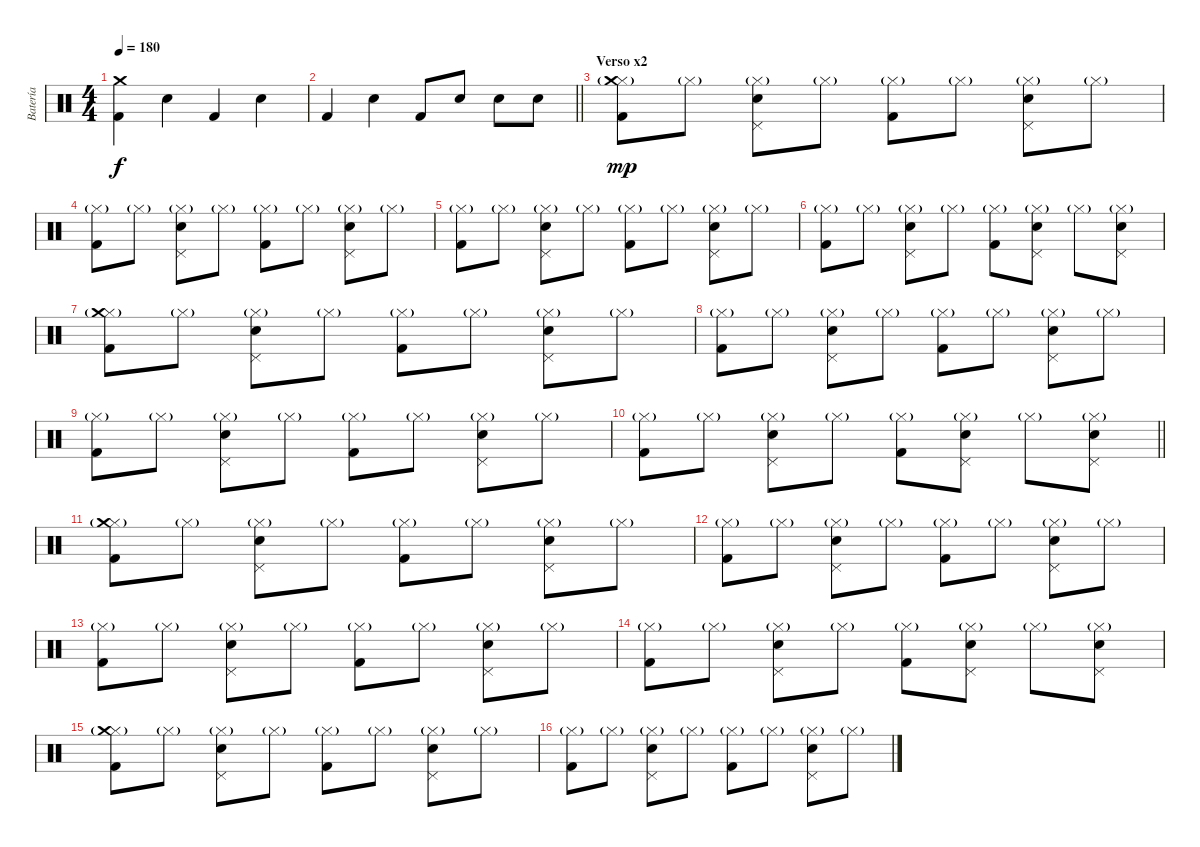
\track ("Batería" "Batería") {instrument percussion}
\staff {score}
\articulation defaults
\ts (4 4)
\tempo 180
\clef neutral
\ks c
("Kick (hit) 2" "Crash medium (hit)").4{dy f} "Electric Snare (hit)".4 "Kick (hit) 2".4 "Electric Snare (hit)".4 |
\barLineRight lightlight "Kick (hit) 2".4 "Electric Snare (hit)".4 "Kick (hit) 2".8 "Electric Snare (hit)".8 "Electric Snare (hit)".8 "Electric Snare (hit)".8
|
\section ("" "Verso x2")
("Hi-Hat (closed)"{g} "Kick (hit) 2" "Crash medium (hit)").8{dy mp} "Hi-Hat (closed)"{g}.8 ("Hi-Hat (closed)"{g} "Electric Snare (hit)" "Pedal Hi-Hat (hit)").8 "Hi-Hat (closed)"{g}.8 ("Hi-Hat (closed)"{g} "Kick (hit) 2").8 "Hi-Hat (closed)"{g}.8 ("Hi-Hat (closed)"{g} "Electric Snare (hit)" "Pedal Hi-Hat (hit)").8 "Hi-Hat (closed)"{g}.8 |
("Hi-Hat (closed)"{g} "Kick (hit) 2").8 "Hi-Hat (closed)"{g}.8 ("Hi-Hat (closed)"{g} "Electric Snare (hit)" "Pedal Hi-Hat (hit)").8 "Hi-Hat (closed)"{g}.8 ("Hi-Hat (closed)"{g} "Kick (hit) 2").8 "Hi-Hat (closed)"{g}.8 ("Hi-Hat (closed)"{g} "Electric Snare (hit)" "Pedal Hi-Hat (hit)").8 "Hi-Hat (closed)"{g}.8 |
("Hi-Hat (closed)"{g} "Kick (hit) 2").8 "Hi-Hat (closed)"{g}.8 ("Hi-Hat (closed)"{g} "Electric Snare (hit)" "Pedal Hi-Hat (hit)").8 "Hi-Hat (closed)"{g}.8 ("Hi-Hat (closed)"{g} "Kick (hit) 2").8 "Hi-Hat (closed)"{g}.8 ("Hi-Hat (closed)"{g} "Electric Snare (hit)" "Pedal Hi-Hat (hit)").8 "Hi-Hat (closed)"{g}.8 |
("Hi-Hat (closed)"{g} "Kick (hit) 2").8 "Hi-Hat (closed)"{g}.8 ("Hi-Hat (closed)"{g} "Electric Snare (hit)" "Pedal Hi-Hat (hit)").8 "Hi-Hat (closed)"{g}.8 ("Hi-Hat (closed)"{g} "Kick (hit) 2").8 ("Hi-Hat (closed)"{g} "Electric Snare (hit)" "Pedal Hi-Hat (hit)").8 "Hi-Hat (closed)"{g}.8 ("Hi-Hat (closed)"{g} "Electric Snare (hit)" "Pedal Hi-Hat (hit)").8 |
("Hi-Hat (closed)"{g} "Kick (hit) 2" "Crash medium (hit)").8 "Hi-Hat (closed)"{g}.8 ("Hi-Hat (closed)"{g} "Electric Snare (hit)" "Pedal Hi-Hat (hit)").8 "Hi-Hat (closed)"{g}.8 ("Hi-Hat (closed)"{g} "Kick (hit) 2").8 "Hi-Hat (closed)"{g}.8 ("Hi-Hat (closed)"{g} "Electric Snare (hit)" "Pedal Hi-Hat (hit)").8 "Hi-Hat (closed)"{g}.8 |
("Hi-Hat (closed)"{g} "Kick (hit) 2").8 "Hi-Hat (closed)"{g}.8 ("Hi-Hat (closed)"{g} "Electric Snare (hit)" "Pedal Hi-Hat (hit)").8 "Hi-Hat (closed)"{g}.8 ("Hi-Hat (closed)"{g} "Kick (hit) 2").8 "Hi-Hat (closed)"{g}.8 ("Hi-Hat (closed)"{g} "Electric Snare (hit)" "Pedal Hi-Hat (hit)").8 "Hi-Hat (closed)"{g}.8 |
("Hi-Hat (closed)"{g} "Kick (hit) 2").8 "Hi-Hat (closed)"{g}.8 ("Hi-Hat (closed)"{g} "Electric Snare (hit)" "Pedal Hi-Hat (hit)").8 "Hi-Hat (closed)"{g}.8 ("Hi-Hat (closed)"{g} "Kick (hit) 2").8 "Hi-Hat (closed)"{g}.8 ("Hi-Hat (closed)"{g} "Electric Snare (hit)" "Pedal Hi-Hat (hit)").8 "Hi-Hat (closed)"{g}.8 |
\barLineRight lightlight
("Hi-Hat (closed)"{g} "Kick (hit) 2").8 "Hi-Hat (closed)"{g}.8 ("Hi-Hat (closed)"{g} "Electric Snare (hit)" "Pedal Hi-Hat (hit)").8 "Hi-Hat (closed)"{g}.8 ("Hi-Hat (closed)"{g} "Kick (hit) 2").8 ("Hi-Hat (closed)"{g} "Electric Snare (hit)" "Pedal Hi-Hat (hit)").8 "Hi-Hat (closed)"{g}.8 ("Hi-Hat (closed)"{g} "Electric Snare (hit)" "Pedal Hi-Hat (hit)").8 |
\section ("" "")
("Hi-Hat (closed)"{g} "Kick (hit) 2" "Crash medium (hit)").8 "Hi-Hat (closed)"{g}.8 ("Hi-Hat (closed)"{g} "Electric Snare (hit)" "Pedal Hi-Hat (hit)").8 "Hi-Hat (closed)"{g}.8 ("Hi-Hat (closed)"{g} "Kick (hit) 2").8 "Hi-Hat (closed)"{g}.8 ("Hi-Hat (closed)"{g} "Electric Snare (hit)" "Pedal Hi-Hat (hit)").8 "Hi-Hat (closed)"{g}.8 |
("Hi-Hat (closed)"{g} "Kick (hit) 2").8 "Hi-Hat (closed)"{g}.8 ("Hi-Hat (closed)"{g} "Electric Snare (hit)" "Pedal Hi-Hat (hit)").8 "Hi-Hat (closed)"{g}.8 ("Hi-Hat (closed)"{g} "Kick (hit) 2").8 "Hi-Hat (closed)"{g}.8 ("Hi-Hat (closed)"{g} "Electric Snare (hit)" "Pedal Hi-Hat (hit)").8 "Hi-Hat (closed)"{g}.8 |
("Hi-Hat (closed)"{g} "Kick (hit) 2").8 "Hi-Hat (closed)"{g}.8 ("Hi-Hat (closed)"{g} "Electric Snare (hit)" "Pedal Hi-Hat (hit)").8 "Hi-Hat (closed)"{g}.8 ("Hi-Hat (closed)"{g} "Kick (hit) 2").8 "Hi-Hat (closed)"{g}.8 ("Hi-Hat (closed)"{g} "Electric Snare (hit)" "Pedal Hi-Hat (hit)").8 "Hi-Hat (closed)"{g}.8 |
("Hi-Hat (closed)"{g} "Kick (hit) 2").8 "Hi-Hat (closed)"{g}.8 ("Hi-Hat (closed)"{g} "Electric Snare (hit)" "Pedal Hi-Hat (hit)").8 "Hi-Hat (closed)"{g}.8 ("Hi-Hat (closed)"{g} "Kick (hit) 2").8 ("Hi-Hat (closed)"{g} "Electric Snare (hit)" "Pedal Hi-Hat (hit)").8 "Hi-Hat (closed)"{g}.8 ("Hi-Hat (closed)"{g} "Electric Snare (hit)" "Pedal Hi-Hat (hit)").8 |
("Hi-Hat (closed)"{g} "Kick (hit) 2" "Crash medium (hit)").8 "Hi-Hat (closed)"{g}.8 ("Hi-Hat (closed)"{g} "Electric Snare (hit)" "Pedal Hi-Hat (hit)").8 "Hi-Hat (closed)"{g}.8 ("Hi-Hat (closed)"{g} "Kick (hit) 2").8 "Hi-Hat (closed)"{g}.8 ("Hi-Hat (closed)"{g} "Electric Snare (hit)" "Pedal Hi-Hat (hit)").8 "Hi-Hat (closed)"{g}.8 |
("Hi-Hat (closed)"{g} "Kick (hit) 2").8 "Hi-Hat (closed)"{g}.8 ("Hi-Hat (closed)"{g} "Electric Snare (hit)" "Pedal Hi-Hat (hit)").8 "Hi-Hat (closed)"{g}.8 ("Hi-Hat (closed)"{g} "Kick (hit) 2").8 "Hi-Hat (closed)"{g}.8 ("Hi-Hat (closed)"{g} "Electric Snare (hit)" "Pedal Hi-Hat (hit)").8 "Hi-Hat (closed)"{g}.8
